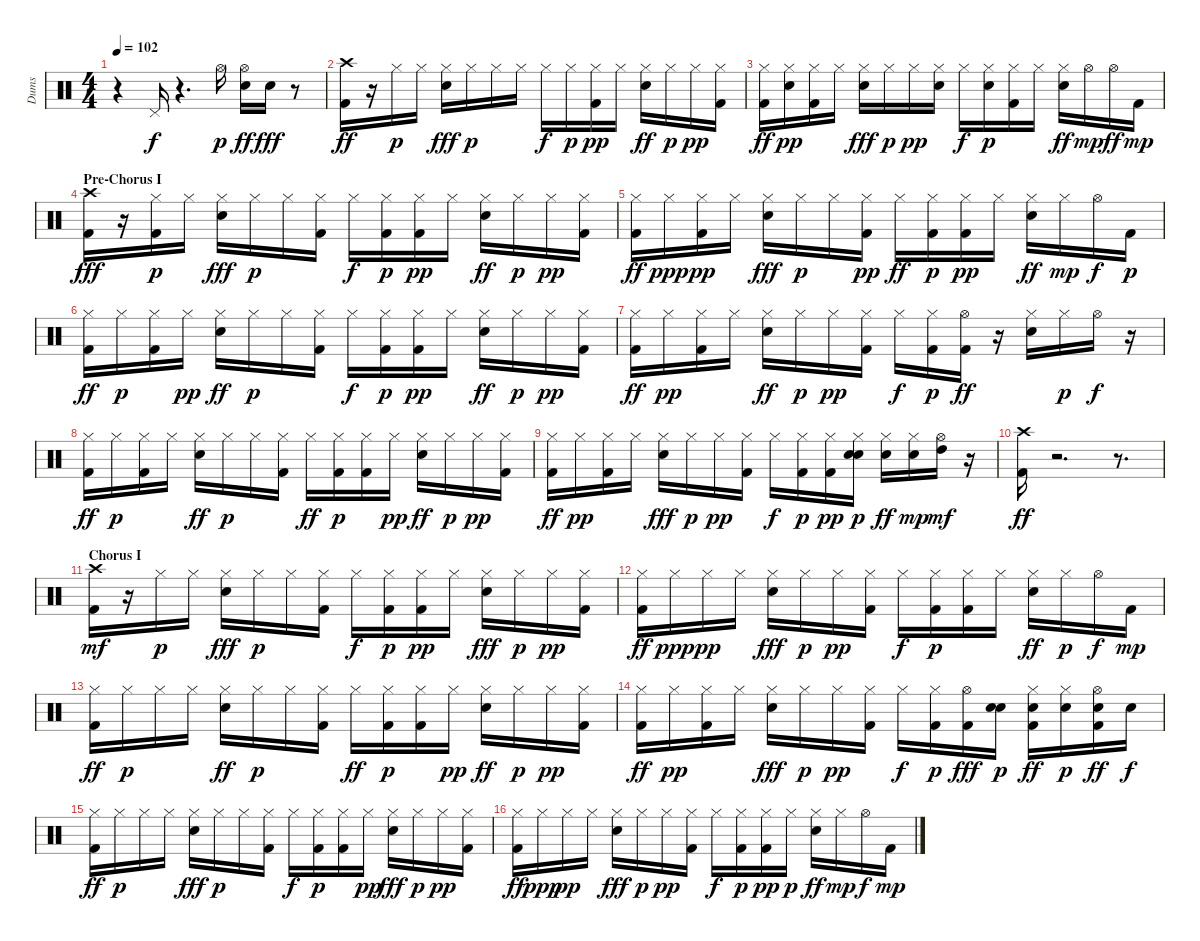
\track ("Dums" "Dums") {instrument percussion}
\staff {score}
\articulation defaults
\ts (4 4)
\tempo 102
\clef neutral
\ks c
r.4{dy f} "Pedal Hi-Hat (hit)".16 r.4{d} "Hi-Hat (open)".16{dy p} ("Electric Snare (hit)" "Hi-Hat (open)").16{dy ff} "Electric Snare (hit)".16{dy fff} r.8 |
("Kick (hit) 2" "Crash high (hit)").16{dy ff} r.16 "Hi-Hat (closed)".16{dy p} "Hi-Hat (closed)".16 ("Electric Snare (hit)" "Hi-Hat (closed)").16{dy fff} "Hi-Hat (closed)".16{dy p} "Hi-Hat (closed)".16 "Hi-Hat (closed)".16 "Hi-Hat (closed)".16{dy f} "Hi-Hat (closed)".16{dy p} ("Kick (hit) 2" "Hi-Hat (closed)").16{dy pp} "Hi-Hat (closed)".16 ("Electric Snare (hit)" "Hi-Hat (closed)").16{dy ff} "Hi-Hat (closed)".16{dy p} "Hi-Hat (closed)".16{dy pp} ("Kick (hit) 2" "Hi-Hat (closed)").16 |
("Kick (hit) 2" "Hi-Hat (closed)").16{dy ff} ("Electric Snare (hit)" "Hi-Hat (closed)").16{dy pp} ("Kick (hit) 2" "Hi-Hat (closed)").16 "Hi-Hat (closed)".16 ("Electric Snare (hit)" "Hi-Hat (closed)").16{dy fff} "Hi-Hat (closed)".16{dy p} "Hi-Hat (closed)".16{dy pp} ("Electric Snare (hit)" "Hi-Hat (closed)").16 "Hi-Hat (closed)".16{dy f} ("Electric Snare (hit)" "Hi-Hat (closed)").16{dy p} ("Kick (hit) 2" "Hi-Hat (closed)").16 "Hi-Hat (closed)".16 ("Electric Snare (hit)" "Hi-Hat (closed)").16{dy ff} "Hi-Hat (open)".16{dy mp} "Hi-Hat (open)".16{dy ff} "Kick (hit) 2".16{dy mp} |
\section ("" "Pre-Chorus I")
("Kick (hit) 2" "Crash high (hit)").16{dy fff} r.16 ("Kick (hit) 2" "Hi-Hat (closed)").16{dy p} "Hi-Hat (closed)".16 ("Electric Snare (hit)" "Hi-Hat (closed)").16{dy fff} "Hi-Hat (closed)".16{dy p} "Hi-Hat (closed)".16 ("Kick (hit) 2" "Hi-Hat (closed)").16 "Hi-Hat (closed)".16{dy f} ("Kick (hit) 2" "Hi-Hat (closed)").16{dy p} ("Kick (hit) 2" "Hi-Hat (closed)").16{dy pp} "Hi-Hat (closed)".16 ("Electric Snare (hit)" "Hi-Hat (closed)").16{dy ff} "Hi-Hat (closed)".16{dy p} "Hi-Hat (closed)".16{dy pp} ("Kick (hit) 2" "Hi-Hat (closed)").16 |
("Kick (hit) 2" "Hi-Hat (closed)").16{dy ff} "Hi-Hat (closed)".16{dy ppp} ("Kick (hit) 2" "Hi-Hat (closed)").16{dy pp} "Hi-Hat (closed)".16 ("Electric Snare (hit)" "Hi-Hat (closed)").16{dy fff} "Hi-Hat (closed)".16{dy p} "Hi-Hat (closed)".16 ("Kick (hit) 2" "Hi-Hat (closed)").16{dy pp} "Hi-Hat (closed)".16{dy ff} ("Kick (hit) 2" "Hi-Hat (closed)").16{dy p} ("Kick (hit) 2" "Hi-Hat (closed)").16{dy pp} "Hi-Hat (closed)".16 ("Electric Snare (hit)" "Hi-Hat (closed)").16{dy ff} "Hi-Hat (closed)".16{dy mp} "Hi-Hat (open)".16{dy f} "Kick (hit) 2".16{dy p} |
("Kick (hit) 2" "Hi-Hat (closed)").16{dy ff} "Hi-Hat (closed)".16{dy p} ("Kick (hit) 2" "Hi-Hat (closed)").16 "Hi-Hat (closed)".16{dy pp} ("Electric Snare (hit)" "Hi-Hat (closed)").16{dy ff} "Hi-Hat (closed)".16{dy p} "Hi-Hat (closed)".16 ("Kick (hit) 2" "Hi-Hat (closed)").16 "Hi-Hat (closed)".16{dy f} ("Kick (hit) 2" "Hi-Hat (closed)").16{dy p} ("Kick (hit) 2" "Hi-Hat (closed)").16{dy pp} "Hi-Hat (closed)".16 ("Electric Snare (hit)" "Hi-Hat (closed)").16{dy ff} "Hi-Hat (closed)".16{dy p} "Hi-Hat (closed)".16{dy pp} ("Kick (hit) 2" "Hi-Hat (closed)").16 |
("Kick (hit) 2" "Hi-Hat (closed)").16{dy ff} "Hi-Hat (closed)".16{dy pp} ("Kick (hit) 2" "Hi-Hat (closed)").16 "Hi-Hat (closed)".16 ("Electric Snare (hit)" "Hi-Hat (closed)").16{dy ff} "Hi-Hat (closed)".16{dy p} "Hi-Hat (closed)".16{dy pp} ("Kick (hit) 2" "Hi-Hat (closed)").16 "Hi-Hat (closed)".16{dy f} ("Kick (hit) 2" "Hi-Hat (closed)").16{dy p} ("Kick (hit) 2" "Hi-Hat (open)").16{dy ff} r.16 ("Electric Snare (hit)" "Hi-Hat (closed)").16 "Hi-Hat (closed)".16{dy p} "Hi-Hat (open)".16{dy f} r.16 |
("Kick (hit) 2" "Hi-Hat (closed)").16{dy ff} "Hi-Hat (closed)".16{dy p} ("Kick (hit) 2" "Hi-Hat (closed)").16 "Hi-Hat (closed)".16 ("Electric Snare (hit)" "Hi-Hat (closed)").16{dy ff} "Hi-Hat (closed)".16{dy p} "Hi-Hat (closed)".16 ("Kick (hit) 2" "Hi-Hat (closed)").16 "Hi-Hat (closed)".16{dy ff} ("Kick (hit) 2" "Hi-Hat (closed)").16{dy p} ("Kick (hit) 2" "Hi-Hat (closed)").16 "Hi-Hat (closed)".16{dy pp} ("Electric Snare (hit)" "Hi-Hat (closed)").16{dy ff} "Hi-Hat (closed)".16{dy p} "Hi-Hat (closed)".16{dy pp} ("Kick (hit) 2" "Hi-Hat (closed)").16 |
("Kick (hit) 2" "Hi-Hat (closed)").16{dy ff} "Hi-Hat (closed)".16{dy pp} ("Kick (hit) 2" "Hi-Hat (closed)").16 "Hi-Hat (closed)".16 ("Electric Snare (hit)" "Hi-Hat (closed)").16{dy fff} "Hi-Hat (closed)".16{dy p} "Hi-Hat (closed)".16{dy pp} ("Kick (hit) 2" "Hi-Hat (closed)").16 "Hi-Hat (closed)".16{dy f} ("Kick (hit) 2" "Hi-Hat (closed)").16{dy p} ("Kick (hit) 2" "Hi-Hat (closed)").16{dy pp} ("Electric Snare (hit)" "Hi-Hat (closed)" "Electric Snare (hit)").16{dy p} ("Electric Snare (hit)" "Hi-Hat (closed)").16{dy ff} ("Electric Snare (hit)" "Hi-Hat (closed)").16{dy mp} ("Hi-Hat (open)" "High Tom (hit)").16{dy mf} r.16 |
("Kick (hit) 2" "Crash high (hit)").16{dy ff} r.2{d} r.8{d} |
\section ("" "Chorus I")
("Kick (hit) 2" "Crash high (hit)").16{dy mf} r.16 "Hi-Hat (closed)".16{dy p} "Hi-Hat (closed)".16 ("Electric Snare (hit)" "Hi-Hat (closed)").16{dy fff} "Hi-Hat (closed)".16{dy p} "Hi-Hat (closed)".16 ("Kick (hit) 2" "Hi-Hat (closed)").16 "Hi-Hat (closed)".16{dy f} ("Kick (hit) 2" "Hi-Hat (closed)").16{dy p} ("Kick (hit) 2" "Hi-Hat (closed)").16{dy pp} "Hi-Hat (closed)".16 ("Electric Snare (hit)" "Hi-Hat (closed)").16{dy fff} "Hi-Hat (closed)".16{dy p} "Hi-Hat (closed)".16{dy pp} ("Kick (hit) 2" "Hi-Hat (closed)").16 |
("Kick (hit) 2" "Hi-Hat (closed)").16{dy ff} "Hi-Hat (closed)".16{dy ppp} "Hi-Hat (closed)".16{dy pp} "Hi-Hat (closed)".16 ("Electric Snare (hit)" "Hi-Hat (closed)").16{dy fff} "Hi-Hat (closed)".16{dy p} "Hi-Hat (closed)".16{dy pp} ("Kick (hit) 2" "Hi-Hat (closed)").16 "Hi-Hat (closed)".16{dy f} ("Kick (hit) 2" "Hi-Hat (closed)").16{dy p} ("Kick (hit) 2" "Hi-Hat (closed)").16 "Hi-Hat (closed)".16 ("Electric Snare (hit)" "Hi-Hat (closed)").16{dy ff} "Hi-Hat (closed)".16{dy p} "Hi-Hat (open)".16{dy f} "Kick (hit) 2".16{dy mp} |
("Kick (hit) 2" "Hi-Hat (closed)").16{dy ff} "Hi-Hat (closed)".16{dy p} "Hi-Hat (closed)".16 "Hi-Hat (closed)".16 ("Electric Snare (hit)" "Hi-Hat (closed)").16{dy ff} "Hi-Hat (closed)".16{dy p} "Hi-Hat (closed)".16 ("Kick (hit) 2" "Hi-Hat (closed)").16 "Hi-Hat (closed)".16{dy ff} ("Kick (hit) 2" "Hi-Hat (closed)").16{dy p} ("Kick (hit) 2" "Hi-Hat (closed)").16 "Hi-Hat (closed)".16{dy pp} ("Electric Snare (hit)" "Hi-Hat (closed)").16{dy ff} "Hi-Hat (closed)".16{dy p} "Hi-Hat (closed)".16{dy pp} ("Kick (hit) 2" "Hi-Hat (closed)").16 |
("Kick (hit) 2" "Hi-Hat (closed)").16{dy ff} "Hi-Hat (closed)".16{dy pp} ("Kick (hit) 2" "Hi-Hat (closed)").16 "Hi-Hat (closed)".16 ("Electric Snare (hit)" "Hi-Hat (closed)").16{dy fff} "Hi-Hat (closed)".16{dy p} "Hi-Hat (closed)".16{dy pp} ("Kick (hit) 2" "Hi-Hat (closed)").16 "Hi-Hat (closed)".16{dy f} ("Kick (hit) 2" "Hi-Hat (closed)").16{dy p} ("Kick (hit) 2" "Hi-Hat (open)").16{dy fff} ("Electric Snare (hit)" "Electric Snare (hit)").16{dy p} ("Kick (hit) 2" "Electric Snare (hit)" "Hi-Hat (closed)").16{dy ff} ("Electric Snare (hit)" "Hi-Hat (closed)").16{dy p} ("Kick (hit) 2" "Electric Snare (hit)" "Hi-Hat (open)").16{dy ff} "Electric Snare (hit)".16{dy f} |
("Kick (hit) 2" "Hi-Hat (closed)").16{dy ff} "Hi-Hat (closed)".16{dy p} "Hi-Hat (closed)".16 "Hi-Hat (closed)".16 ("Electric Snare (hit)" "Hi-Hat (closed)").16{dy fff} "Hi-Hat (closed)".16{dy p} "Hi-Hat (closed)".16 ("Kick (hit) 2" "Hi-Hat (closed)").16 "Hi-Hat (closed)".16{dy f} ("Kick (hit) 2" "Hi-Hat (closed)").16{dy p} ("Kick (hit) 2" "Hi-Hat (closed)").16 "Hi-Hat (closed)".16{dy pp} ("Electric Snare (hit)" "Hi-Hat (closed)").16{dy fff} "Hi-Hat (closed)".16{dy p} "Hi-Hat (closed)".16{dy pp} ("Kick (hit) 2" "Hi-Hat (closed)").16 |
("Kick (hit) 2" "Hi-Hat (closed)").16{dy ff} "Hi-Hat (closed)".16{dy ppp} "Hi-Hat (closed)".16{dy pp} "Hi-Hat (closed)".16 ("Electric Snare (hit)" "Hi-Hat (closed)").16{dy fff} "Hi-Hat (closed)".16{dy p} "Hi-Hat (closed)".16{dy pp} ("Kick (hit) 2" "Hi-Hat (closed)").16 "Hi-Hat (closed)".16{dy f} ("Kick (hit) 2" "Hi-Hat (closed)").16{dy p} ("Kick (hit) 2" "Hi-Hat (closed)").16{dy pp} "Hi-Hat (closed)".16{dy p} ("Electric Snare (hit)" "Hi-Hat (closed)").16{dy ff} "Hi-Hat (closed)".16{dy mp} "Hi-Hat (open)".16{dy f} "Kick (hit) 2".16{dy mp}
